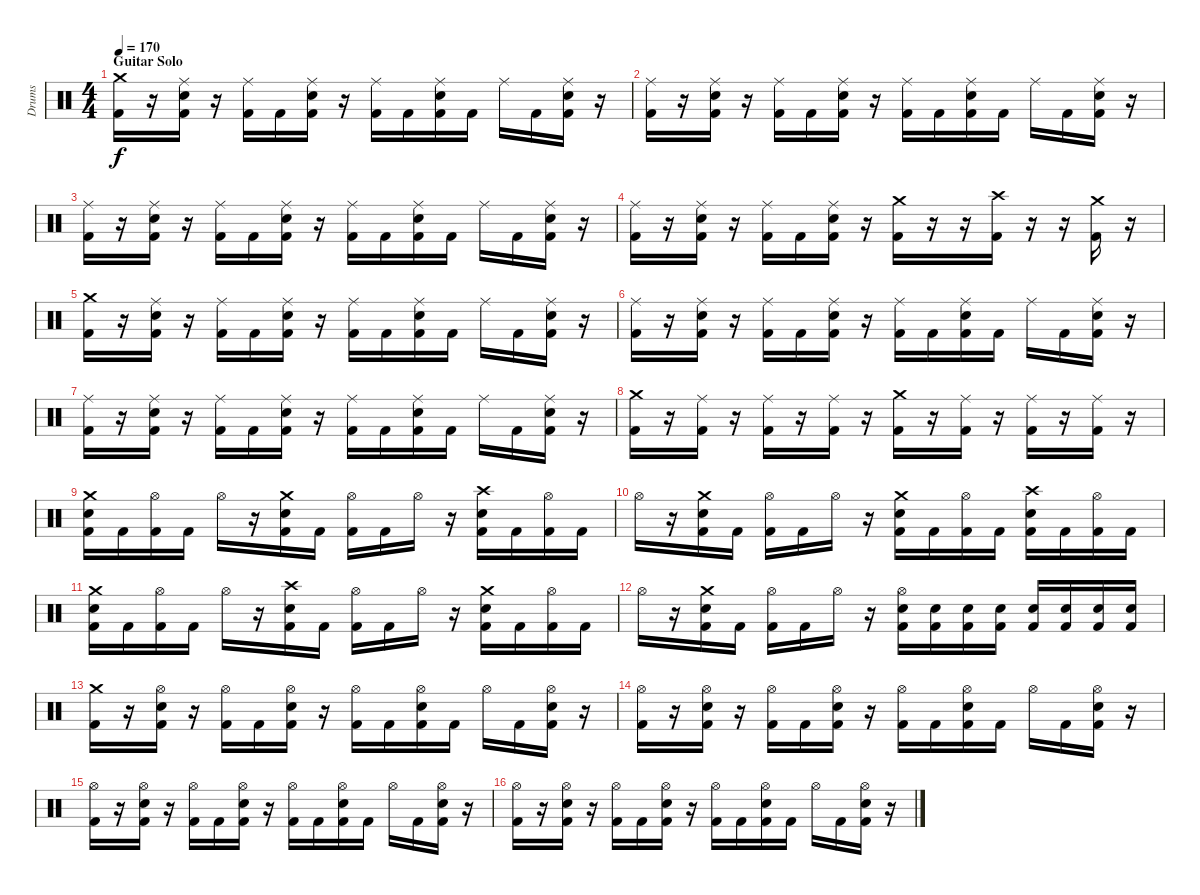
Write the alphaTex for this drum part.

\track ("Drums" "Drums") {instrument percussion}
\staff {score}
\articulation defaults
\ts (4 4)
\section ("" "Guitar Solo")
\tempo 170
\clef neutral
\ks c
("Crash medium (hit)" "Kick (hit) 2").16{dy f} r.16 ("Ride (middle)" "Electric Snare (hit)" "Kick (hit) 2").16 r.16 ("Ride (middle)" "Kick (hit) 2").16 "Kick (hit) 2".16 ("Ride (middle)" "Electric Snare (hit)" "Kick (hit) 2").16 r.16 ("Ride (middle)" "Kick (hit) 2").16 "Kick (hit) 2".16 ("Ride (middle)" "Electric Snare (hit)" "Kick (hit) 2").16 "Kick (hit) 2".16 "Ride (middle)".16 "Kick (hit) 2".16 ("Ride (middle)" "Electric Snare (hit)" "Kick (hit) 2").16 r.16 |
("Ride (middle)" "Kick (hit) 2").16 r.16 ("Ride (middle)" "Electric Snare (hit)" "Kick (hit) 2").16 r.16 ("Ride (middle)" "Kick (hit) 2").16 "Kick (hit) 2".16 ("Ride (middle)" "Electric Snare (hit)" "Kick (hit) 2").16 r.16 ("Ride (middle)" "Kick (hit) 2").16 "Kick (hit) 2".16 ("Ride (middle)" "Electric Snare (hit)" "Kick (hit) 2").16 "Kick (hit) 2".16 "Ride (middle)".16 "Kick (hit) 2".16 ("Ride (middle)" "Electric Snare (hit)" "Kick (hit) 2").16 r.16 |
("Ride (middle)" "Kick (hit) 2").16 r.16 ("Ride (middle)" "Electric Snare (hit)" "Kick (hit) 2").16 r.16 ("Ride (middle)" "Kick (hit) 2").16 "Kick (hit) 2".16 ("Ride (middle)" "Electric Snare (hit)" "Kick (hit) 2").16 r.16 ("Ride (middle)" "Kick (hit) 2").16 "Kick (hit) 2".16 ("Ride (middle)" "Electric Snare (hit)" "Kick (hit) 2").16 "Kick (hit) 2".16 "Ride (middle)".16 "Kick (hit) 2".16 ("Ride (middle)" "Electric Snare (hit)" "Kick (hit) 2").16 r.16 |
("Ride (middle)" "Kick (hit) 2").16 r.16 ("Ride (middle)" "Electric Snare (hit)" "Kick (hit) 2").16 r.16 ("Ride (middle)" "Kick (hit) 2").16 "Kick (hit) 2".16 ("Ride (middle)" "Electric Snare (hit)" "Kick (hit) 2").16 r.16 ("Crash medium (hit)" "Kick (hit) 2").16 r.16 r.16 ("Crash high (hit)" "Kick (hit) 2").16 r.16 r.16 ("Crash medium (hit)" "Kick (hit) 2").16 r.16 |
("Crash medium (hit)" "Kick (hit) 2").16 r.16 ("Ride (middle)" "Electric Snare (hit)" "Kick (hit) 2").16 r.16 ("Ride (middle)" "Kick (hit) 2").16 "Kick (hit) 2".16 ("Ride (middle)" "Electric Snare (hit)" "Kick (hit) 2").16 r.16 ("Ride (middle)" "Kick (hit) 2").16 "Kick (hit) 2".16 ("Ride (middle)" "Electric Snare (hit)" "Kick (hit) 2").16 "Kick (hit) 2".16 "Ride (middle)".16 "Kick (hit) 2".16 ("Ride (middle)" "Electric Snare (hit)" "Kick (hit) 2").16 r.16 |
("Ride (middle)" "Kick (hit) 2").16 r.16 ("Ride (middle)" "Electric Snare (hit)" "Kick (hit) 2").16 r.16 ("Ride (middle)" "Kick (hit) 2").16 "Kick (hit) 2".16 ("Ride (middle)" "Electric Snare (hit)" "Kick (hit) 2").16 r.16 ("Ride (middle)" "Kick (hit) 2").16 "Kick (hit) 2".16 ("Ride (middle)" "Electric Snare (hit)" "Kick (hit) 2").16 "Kick (hit) 2".16 "Ride (middle)".16 "Kick (hit) 2".16 ("Ride (middle)" "Electric Snare (hit)" "Kick (hit) 2").16 r.16 |
("Ride (middle)" "Kick (hit) 2").16 r.16 ("Ride (middle)" "Electric Snare (hit)" "Kick (hit) 2").16 r.16 ("Ride (middle)" "Kick (hit) 2").16 "Kick (hit) 2".16 ("Ride (middle)" "Electric Snare (hit)" "Kick (hit) 2").16 r.16 ("Ride (middle)" "Kick (hit) 2").16 "Kick (hit) 2".16 ("Ride (middle)" "Electric Snare (hit)" "Kick (hit) 2").16 "Kick (hit) 2".16 "Ride (middle)".16 "Kick (hit) 2".16 ("Ride (middle)" "Electric Snare (hit)" "Kick (hit) 2").16 r.16 |
("Crash medium (hit)" "Kick (hit) 2").16 r.16 ("Ride (middle)" "Kick (hit) 2").16 r.16 ("Ride (middle)" "Kick (hit) 2").16 r.16 ("Ride (middle)" "Kick (hit) 2").16 r.16 ("Crash medium (hit)" "Kick (hit) 2").16 r.16 ("Ride (middle)" "Kick (hit) 2").16 r.16 ("Ride (middle)" "Kick (hit) 2").16 r.16 ("Ride (middle)" "Kick (hit) 2").16 r.16 |
\section ("" "")
("Crash medium (hit)" "Electric Snare (hit)" "Kick (hit) 2").16 "Kick (hit) 2".16 ("Hi-Hat (open)" "Kick (hit) 2").16 "Kick (hit) 2".16 "Hi-Hat (open)".16 r.16 ("Crash medium (hit)" "Electric Snare (hit)" "Kick (hit) 2").16 "Kick (hit) 2".16 ("Hi-Hat (open)" "Kick (hit) 2").16 "Kick (hit) 2".16 "Hi-Hat (open)".16 r.16 ("Crash high (hit)" "Electric Snare (hit)" "Kick (hit) 2").16 "Kick (hit) 2".16 ("Hi-Hat (open)" "Kick (hit) 2").16 "Kick (hit) 2".16 |
"Hi-Hat (open)".16 r.16 ("Crash medium (hit)" "Electric Snare (hit)" "Kick (hit) 2").16 "Kick (hit) 2".16 ("Hi-Hat (open)" "Kick (hit) 2").16 "Kick (hit) 2".16 "Hi-Hat (open)".16 r.16 ("Crash medium (hit)" "Electric Snare (hit)" "Kick (hit) 2").16 "Kick (hit) 2".16 ("Hi-Hat (open)" "Kick (hit) 2").16 "Kick (hit) 2".16 ("Crash high (hit)" "Electric Snare (hit)" "Kick (hit) 2").16 "Kick (hit) 2".16 ("Hi-Hat (open)" "Kick (hit) 2").16 "Kick (hit) 2".16 |
("Crash medium (hit)" "Electric Snare (hit)" "Kick (hit) 2").16 "Kick (hit) 2".16 ("Hi-Hat (open)" "Kick (hit) 2").16 "Kick (hit) 2".16 "Hi-Hat (open)".16 r.16 ("Crash high (hit)" "Electric Snare (hit)" "Kick (hit) 2").16 "Kick (hit) 2".16 ("Hi-Hat (open)" "Kick (hit) 2").16 "Kick (hit) 2".16 "Hi-Hat (open)".16 r.16 ("Crash medium (hit)" "Electric Snare (hit)" "Kick (hit) 2").16 "Kick (hit) 2".16 ("Hi-Hat (open)" "Kick (hit) 2").16 "Kick (hit) 2".16 |
"Hi-Hat (open)".16 r.16 ("Crash medium (hit)" "Electric Snare (hit)" "Kick (hit) 2").16 "Kick (hit) 2".16 ("Hi-Hat (open)" "Kick (hit) 2").16 "Kick (hit) 2".16 "Hi-Hat (open)".16 r.16 ("Hi-Hat (open)" "Electric Snare (hit)" "Kick (hit) 2").16 ("Electric Snare (hit)" "Kick (hit) 2").16 ("Electric Snare (hit)" "Kick (hit) 2").16 ("Electric Snare (hit)" "Kick (hit) 2").16 ("Electric Snare (hit)" "Kick (hit) 2").16 ("Electric Snare (hit)" "Kick (hit) 2").16 ("Electric Snare (hit)" "Kick (hit) 2").16 ("Electric Snare (hit)" "Kick (hit) 2").16 |
\section ("" "")
("Crash medium (hit)" "Kick (hit) 2").16 r.16 ("Hi-Hat (open)" "Electric Snare (hit)" "Kick (hit) 2").16 r.16 ("Hi-Hat (open)" "Kick (hit) 2").16 "Kick (hit) 2".16 ("Hi-Hat (open)" "Electric Snare (hit)" "Kick (hit) 2").16 r.16 ("Hi-Hat (open)" "Kick (hit) 2").16 "Kick (hit) 2".16 ("Hi-Hat (open)" "Electric Snare (hit)" "Kick (hit) 2").16 "Kick (hit) 2".16 "Hi-Hat (open)".16 "Kick (hit) 2".16 ("Hi-Hat (open)" "Electric Snare (hit)" "Kick (hit) 2").16 r.16 |
("Hi-Hat (open)" "Kick (hit) 2").16 r.16 ("Hi-Hat (open)" "Electric Snare (hit)" "Kick (hit) 2").16 r.16 ("Hi-Hat (open)" "Kick (hit) 2").16 "Kick (hit) 2".16 ("Hi-Hat (open)" "Electric Snare (hit)" "Kick (hit) 2").16 r.16 ("Hi-Hat (open)" "Kick (hit) 2").16 "Kick (hit) 2".16 ("Hi-Hat (open)" "Electric Snare (hit)" "Kick (hit) 2").16 "Kick (hit) 2".16 "Hi-Hat (open)".16 "Kick (hit) 2".16 ("Hi-Hat (open)" "Electric Snare (hit)" "Kick (hit) 2").16 r.16 |
("Hi-Hat (open)" "Kick (hit) 2").16 r.16 ("Hi-Hat (open)" "Electric Snare (hit)" "Kick (hit) 2").16 r.16 ("Hi-Hat (open)" "Kick (hit) 2").16 "Kick (hit) 2".16 ("Hi-Hat (open)" "Electric Snare (hit)" "Kick (hit) 2").16 r.16 ("Hi-Hat (open)" "Kick (hit) 2").16 "Kick (hit) 2".16 ("Hi-Hat (open)" "Electric Snare (hit)" "Kick (hit) 2").16 "Kick (hit) 2".16 "Hi-Hat (open)".16 "Kick (hit) 2".16 ("Hi-Hat (open)" "Electric Snare (hit)" "Kick (hit) 2").16 r.16 |
("Hi-Hat (open)" "Kick (hit) 2").16 r.16 ("Hi-Hat (open)" "Electric Snare (hit)" "Kick (hit) 2").16 r.16 ("Hi-Hat (open)" "Kick (hit) 2").16 "Kick (hit) 2".16 ("Hi-Hat (open)" "Electric Snare (hit)" "Kick (hit) 2").16 r.16 ("Hi-Hat (open)" "Kick (hit) 2").16 "Kick (hit) 2".16 ("Hi-Hat (open)" "Electric Snare (hit)" "Kick (hit) 2").16 "Kick (hit) 2".16 "Hi-Hat (open)".16 "Kick (hit) 2".16 ("Hi-Hat (open)" "Electric Snare (hit)" "Kick (hit) 2").16 r.16
